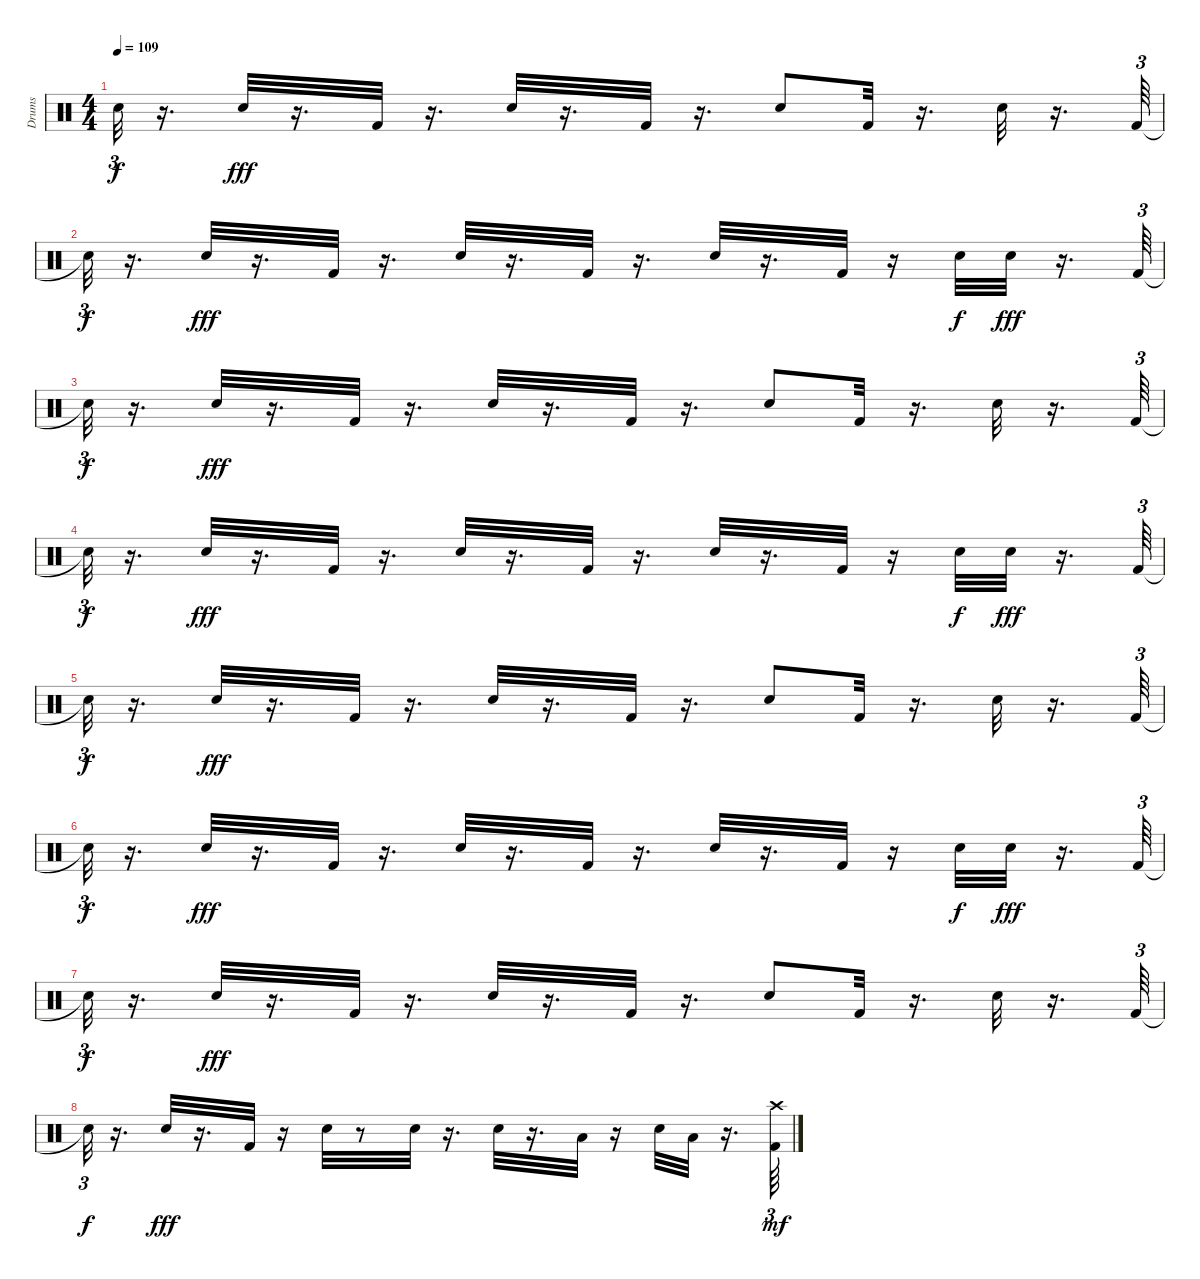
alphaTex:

\track ("Drums" "Drums") {instrument percussion}
\staff {score}
\articulation defaults
\ts (4 4)
\tempo 109
\clef neutral
\ks c "Snare (hit)"{t}.32{tu (3 2) dy f}
r.16{d} "Snare (hit) 2".32{dy fff} r.16{d} "Kick (hit) 2".32 r.16{d} "Snare (hit) 2".32 r.16{d} "Kick (hit) 2".32 r.16{d} "Snare (hit) 2".8 "Kick (hit) 2".32 r.16{d} "Snare (hit) 2".32 r.16{d} "Kick (hit) 2".64{tu (3 2)} |
"Snare (hit)"{t}.32{tu (3 2) dy f} r.16{d} "Snare (hit) 2".32{dy fff} r.16{d} "Kick (hit) 2".32 r.16{d} "Snare (hit) 2".32 r.16{d} "Kick (hit) 2".32 r.16{d} "Snare (hit) 2".32 r.16{d} "Kick (hit) 2".32 r.16 "Snare (hit) 2".32{dy f} "Snare (hit) 2".32{dy fff} r.16{d} "Kick (hit) 2".64{tu (3 2)} |
"Snare (hit)"{t}.32{tu (3 2) dy f} r.16{d} "Snare (hit) 2".32{dy fff} r.16{d} "Kick (hit) 2".32 r.16{d} "Snare (hit) 2".32 r.16{d} "Kick (hit) 2".32 r.16{d} "Snare (hit) 2".8 "Kick (hit) 2".32 r.16{d} "Snare (hit) 2".32 r.16{d} "Kick (hit) 2".64{tu (3 2)} |
"Snare (hit)"{t}.32{tu (3 2) dy f} r.16{d} "Snare (hit) 2".32{dy fff} r.16{d} "Kick (hit) 2".32 r.16{d} "Snare (hit) 2".32 r.16{d} "Kick (hit) 2".32 r.16{d} "Snare (hit) 2".32 r.16{d} "Kick (hit) 2".32 r.16 "Snare (hit) 2".32{dy f} "Snare (hit) 2".32{dy fff} r.16{d} "Kick (hit) 2".64{tu (3 2)} |
"Snare (hit)"{t}.32{tu (3 2) dy f} r.16{d} "Snare (hit) 2".32{dy fff} r.16{d} "Kick (hit) 2".32 r.16{d} "Snare (hit) 2".32 r.16{d} "Kick (hit) 2".32 r.16{d} "Snare (hit) 2".8 "Kick (hit) 2".32 r.16{d} "Snare (hit) 2".32 r.16{d} "Kick (hit) 2".64{tu (3 2)} |
"Snare (hit)"{t}.32{tu (3 2) dy f} r.16{d} "Snare (hit) 2".32{dy fff} r.16{d} "Kick (hit) 2".32 r.16{d} "Snare (hit) 2".32 r.16{d} "Kick (hit) 2".32 r.16{d} "Snare (hit) 2".32 r.16{d} "Kick (hit) 2".32 r.16 "Snare (hit) 2".32{dy f} "Snare (hit) 2".32{dy fff} r.16{d} "Kick (hit) 2".64{tu (3 2)} |
"Snare (hit)"{t}.32{tu (3 2) dy f} r.16{d} "Snare (hit) 2".32{dy fff} r.16{d} "Kick (hit) 2".32 r.16{d} "Snare (hit) 2".32 r.16{d} "Kick (hit) 2".32 r.16{d} "Snare (hit) 2".8 "Kick (hit) 2".32 r.16{d} "Snare (hit) 2".32 r.16{d} "Kick (hit) 2".64{tu (3 2)} |
"Snare (hit)"{t}.32{tu (3 2) dy f} r.16{d} "Snare (hit) 2".32{dy fff} r.16{d} "Kick (hit) 2".32 r.16 "Snare (hit) 2".32 r.8 "Snare (hit) 2".32 r.16{d} "Snare (hit) 2".32 r.16{d} "Low Floor Tom (hit)".32 r.16 "Snare (hit) 2".32 "Low Tom (hit)".32 r.16{d} ("Kick (hit) 2" "Crash high (hit)").64{tu (3 2) dy mf}
